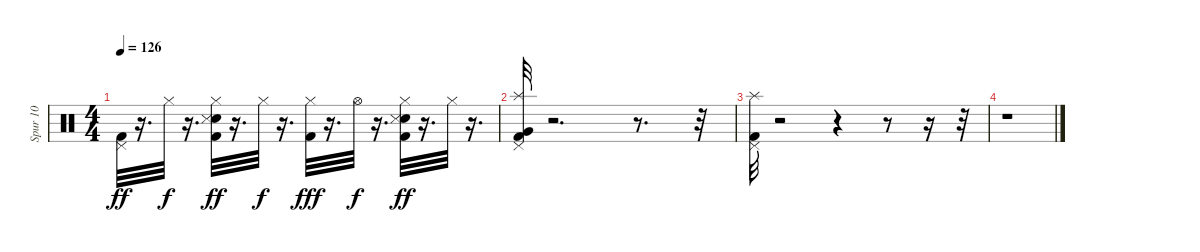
\track ("Spur 10" "Spur 10") {instrument percussion}
\staff {score}
\articulation defaults
\ts (4 4)
\tempo 126
\clef neutral
\ks c
("Kick (hit) 2" "Pedal Hi-Hat (hit)").32{dy ff} r.16{d} "Hi-Hat (closed)".32{dy f} r.16{d} ("Snare (hit) 2" "Kick (hit) 2" "Hi-Hat (closed)" "Snare (side stick) 3").32{dy ff} r.16{d} "Hi-Hat (closed)".32{dy f} r.16{d} ("Kick (hit) 2" "Hi-Hat (closed)").32{dy fff} r.16{d} "Hi-Hat (open)".32{dy f} r.16{d} ("Snare (hit) 2" "Kick (hit) 2" "Hi-Hat (closed)" "Snare (side stick) 3").32{dy ff} r.16{d} "Hi-Hat (closed)".32 r.16{d} |
("Kick (hit) 2" "Pedal Hi-Hat (hit)" "Splash (hit)" "Very Low Tom (hit)").32 r.2{d} r.8{d} r.32 |
("Splash (hit)" "Kick (hit) 2" "Pedal Hi-Hat (hit)").32 r.2 r.4 r.8 r.16 r.32 |
r.1
